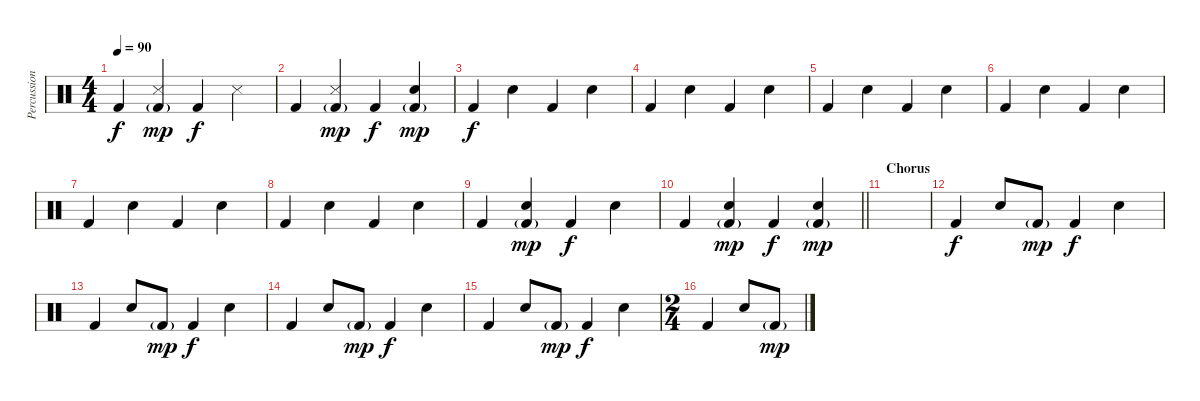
\track ("Percussion" "Percussion") {instrument percussion}
\staff {score}
\articulation defaults
\ts (4 4)
\tempo 90
\clef neutral
\ks c "Kick (hit) 2".4{dy f}
("Snare (side stick) 3" "Kick (hit) 2"{g}).4{dy mp} "Kick (hit) 2".4{dy f} "Snare (side stick) 3".4 |
"Kick (hit) 2".4 ("Snare (side stick) 3" "Kick (hit) 2"{g}).4{dy mp} "Kick (hit) 2".4{dy f} ("Snare (hit) 2" "Kick (hit) 2"{g}).4{dy mp} |
"Kick (hit) 2".4{dy f} "Snare (hit) 2".4 "Kick (hit) 2".4 "Snare (hit) 2".4 |
"Kick (hit) 2".4 "Snare (hit) 2".4 "Kick (hit) 2".4 "Snare (hit) 2".4 |
"Kick (hit) 2".4 "Snare (hit) 2".4 "Kick (hit) 2".4 "Snare (hit) 2".4 |
"Kick (hit) 2".4 "Snare (hit) 2".4 "Kick (hit) 2".4 "Snare (hit) 2".4 |
"Kick (hit) 2".4 "Snare (hit) 2".4 "Kick (hit) 2".4 "Snare (hit) 2".4 |
"Kick (hit) 2".4 "Snare (hit) 2".4 "Kick (hit) 2".4 "Snare (hit) 2".4 |
"Kick (hit) 2".4 ("Snare (hit) 2" "Kick (hit) 2"{g}).4{dy mp} "Kick (hit) 2".4{dy f} "Snare (hit) 2".4 |
\barLineRight lightlight "Kick (hit) 2".4
("Snare (hit) 2" "Kick (hit) 2"{g}).4{dy mp} "Kick (hit) 2".4{dy f} ("Snare (hit) 2" "Kick (hit) 2"{g}).4{dy mp} |
\section ("" "Chorus")
|
"Kick (hit) 2".4{dy f} "Snare (hit) 2".8 "Kick (hit) 2"{g}.8{dy mp} "Kick (hit) 2".4{dy f} "Snare (hit) 2".4 |
"Kick (hit) 2".4 "Snare (hit) 2".8 "Kick (hit) 2"{g}.8{dy mp} "Kick (hit) 2".4{dy f} "Snare (hit) 2".4 |
"Kick (hit) 2".4 "Snare (hit) 2".8 "Kick (hit) 2"{g}.8{dy mp} "Kick (hit) 2".4{dy f} "Snare (hit) 2".4 |
"Kick (hit) 2".4 "Snare (hit) 2".8 "Kick (hit) 2"{g}.8{dy mp} "Kick (hit) 2".4{dy f} "Snare (hit) 2".4 |
\ts (2 4)
"Kick (hit) 2".4 "Snare (hit) 2".8 "Kick (hit) 2"{g}.8{dy mp}
